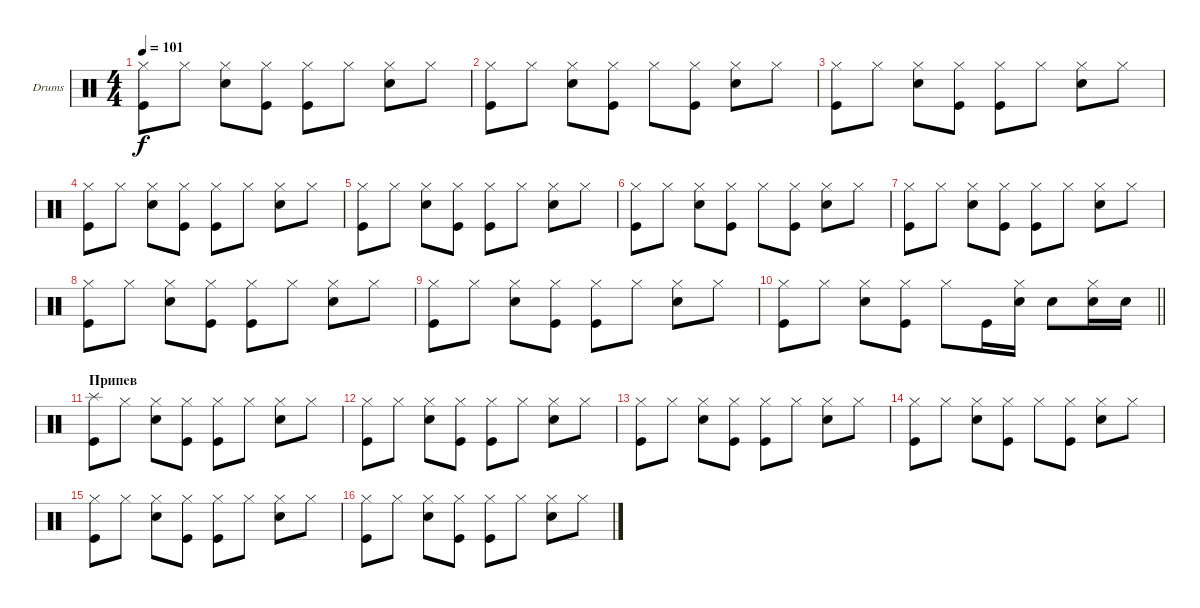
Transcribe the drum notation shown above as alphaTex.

\bracketExtendMode groupsimilarinstruments
\firstSystemTrackNameOrientation horizontal
\otherSystemsTrackNameOrientation horizontal
\track ("Drumkit" "Drums") {instrument percussion}
\staff {score}
\articulation defaults
\ts (4 4)
\tempo 101
\clef neutral
\ks c
("Hi-Hat (closed)" "Kick (hit)").8{dy f} "Hi-Hat (closed)".8 ("Hi-Hat (closed)" "Snare (hit) 2").8 ("Hi-Hat (closed)" "Kick (hit)").8 ("Hi-Hat (closed)" "Kick (hit)").8 "Hi-Hat (closed)".8 ("Hi-Hat (closed)" "Snare (hit) 2").8 "Hi-Hat (closed)".8 |
("Hi-Hat (closed)" "Kick (hit)").8 "Hi-Hat (closed)".8 ("Hi-Hat (closed)" "Snare (hit) 2").8 ("Hi-Hat (closed)" "Kick (hit)").8 "Hi-Hat (closed)".8 ("Hi-Hat (closed)" "Kick (hit)").8 ("Hi-Hat (closed)" "Snare (hit) 2").8 "Hi-Hat (closed)".8 |
("Hi-Hat (closed)" "Kick (hit)").8 "Hi-Hat (closed)".8 ("Hi-Hat (closed)" "Snare (hit) 2").8 ("Hi-Hat (closed)" "Kick (hit)").8 ("Hi-Hat (closed)" "Kick (hit)").8 "Hi-Hat (closed)".8 ("Hi-Hat (closed)" "Snare (hit) 2").8 "Hi-Hat (closed)".8 |
("Hi-Hat (closed)" "Kick (hit)").8 "Hi-Hat (closed)".8 ("Hi-Hat (closed)" "Snare (hit) 2").8 ("Hi-Hat (closed)" "Kick (hit)").8 ("Hi-Hat (closed)" "Kick (hit)").8 "Hi-Hat (closed)".8 ("Hi-Hat (closed)" "Snare (hit) 2").8 "Hi-Hat (closed)".8 |
("Hi-Hat (closed)" "Kick (hit)").8 "Hi-Hat (closed)".8 ("Hi-Hat (closed)" "Snare (hit) 2").8 ("Hi-Hat (closed)" "Kick (hit)").8 ("Hi-Hat (closed)" "Kick (hit)").8 "Hi-Hat (closed)".8 ("Hi-Hat (closed)" "Snare (hit) 2").8 "Hi-Hat (closed)".8 |
("Hi-Hat (closed)" "Kick (hit)").8 "Hi-Hat (closed)".8 ("Hi-Hat (closed)" "Snare (hit) 2").8 ("Hi-Hat (closed)" "Kick (hit)").8 "Hi-Hat (closed)".8 ("Hi-Hat (closed)" "Kick (hit)").8 ("Hi-Hat (closed)" "Snare (hit) 2").8 "Hi-Hat (closed)".8 |
("Hi-Hat (closed)" "Kick (hit)").8 "Hi-Hat (closed)".8 ("Hi-Hat (closed)" "Snare (hit) 2").8 ("Hi-Hat (closed)" "Kick (hit)").8 ("Hi-Hat (closed)" "Kick (hit)").8 "Hi-Hat (closed)".8 ("Hi-Hat (closed)" "Snare (hit) 2").8 "Hi-Hat (closed)".8 |
("Hi-Hat (closed)" "Kick (hit)").8 "Hi-Hat (closed)".8 ("Hi-Hat (closed)" "Snare (hit) 2").8 ("Hi-Hat (closed)" "Kick (hit)").8 ("Hi-Hat (closed)" "Kick (hit)").8 "Hi-Hat (closed)".8 ("Hi-Hat (closed)" "Snare (hit) 2").8 "Hi-Hat (closed)".8 |
("Hi-Hat (closed)" "Kick (hit)").8 "Hi-Hat (closed)".8 ("Hi-Hat (closed)" "Snare (hit) 2").8 ("Hi-Hat (closed)" "Kick (hit)").8 ("Hi-Hat (closed)" "Kick (hit)").8 "Hi-Hat (closed)".8 ("Hi-Hat (closed)" "Snare (hit) 2").8 "Hi-Hat (closed)".8 |
\barLineRight lightlight
("Hi-Hat (closed)" "Kick (hit)").8 "Hi-Hat (closed)".8 ("Hi-Hat (closed)" "Snare (hit) 2").8 ("Hi-Hat (closed)" "Kick (hit)").8 "Hi-Hat (closed)".8 "Kick (hit)".16 ("Hi-Hat (closed)" "Snare (hit) 2").16 "Snare (hit) 2".8 ("Hi-Hat (closed)" "Snare (hit) 2").16 "Snare (hit) 2".16 |
\section ("" "Припев")
("Splash (hit)" "Kick (hit)").8 "Hi-Hat (closed)".8 ("Hi-Hat (closed)" "Snare (hit) 2").8 ("Hi-Hat (closed)" "Kick (hit)").8 ("Hi-Hat (closed)" "Kick (hit)").8 "Hi-Hat (closed)".8 ("Hi-Hat (closed)" "Snare (hit) 2").8 "Hi-Hat (closed)".8 |
("Hi-Hat (closed)" "Kick (hit)").8 "Hi-Hat (closed)".8 ("Hi-Hat (closed)" "Snare (hit) 2").8 ("Hi-Hat (closed)" "Kick (hit)").8 ("Hi-Hat (closed)" "Kick (hit)").8 "Hi-Hat (closed)".8 ("Hi-Hat (closed)" "Snare (hit) 2").8 "Hi-Hat (closed)".8 |
("Hi-Hat (closed)" "Kick (hit)").8 "Hi-Hat (closed)".8 ("Hi-Hat (closed)" "Snare (hit) 2").8 ("Hi-Hat (closed)" "Kick (hit)").8 ("Hi-Hat (closed)" "Kick (hit)").8 "Hi-Hat (closed)".8 ("Hi-Hat (closed)" "Snare (hit) 2").8 "Hi-Hat (closed)".8 |
("Hi-Hat (closed)" "Kick (hit)").8 "Hi-Hat (closed)".8 ("Hi-Hat (closed)" "Snare (hit) 2").8 ("Hi-Hat (closed)" "Kick (hit)").8 "Hi-Hat (closed)".8 ("Hi-Hat (closed)" "Kick (hit)").8 ("Hi-Hat (closed)" "Snare (hit) 2").8 "Hi-Hat (closed)".8 |
("Hi-Hat (closed)" "Kick (hit)").8 "Hi-Hat (closed)".8 ("Hi-Hat (closed)" "Snare (hit) 2").8 ("Hi-Hat (closed)" "Kick (hit)").8 ("Hi-Hat (closed)" "Kick (hit)").8 "Hi-Hat (closed)".8 ("Hi-Hat (closed)" "Snare (hit) 2").8 "Hi-Hat (closed)".8 |
("Hi-Hat (closed)" "Kick (hit)").8 "Hi-Hat (closed)".8 ("Hi-Hat (closed)" "Snare (hit) 2").8 ("Hi-Hat (closed)" "Kick (hit)").8 ("Hi-Hat (closed)" "Kick (hit)").8 "Hi-Hat (closed)".8 ("Hi-Hat (closed)" "Snare (hit) 2").8 "Hi-Hat (closed)".8
